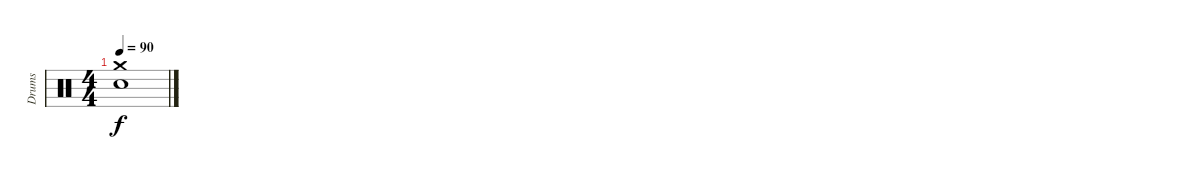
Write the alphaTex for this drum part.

\track ("Drums" "Drums") {instrument percussion}
\staff {score}
\articulation defaults
\ts (4 4)
\tempo 90
\clef neutral
\ks c
("Electric Snare (hit)" "Crash medium (hit)").1{dy f}
